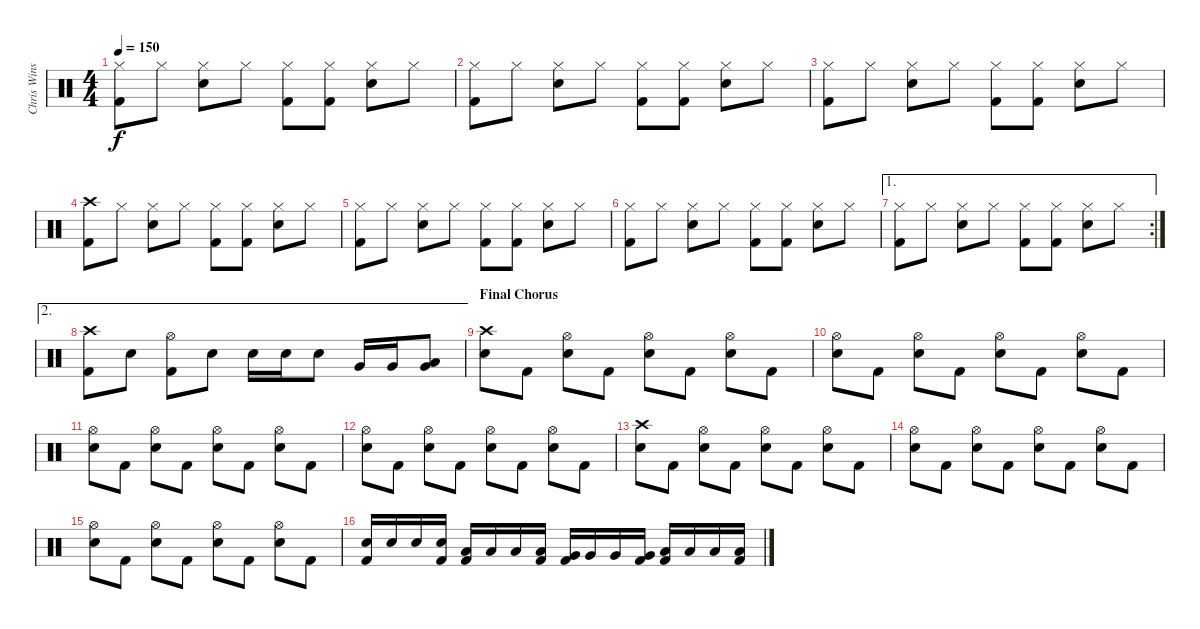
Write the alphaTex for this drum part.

\track ("Chris Winship (Drums)" "Chris Wins") {instrument percussion}
\staff {score}
\articulation defaults
\ts (4 4)
\tempo 150
\clef neutral
\ks c
("Hi-Hat (closed)" "Kick (hit) 2").8{dy f} "Hi-Hat (closed)".8 ("Hi-Hat (closed)" "Electric Snare (hit)").8 "Hi-Hat (closed)".8 ("Hi-Hat (closed)" "Kick (hit) 2").8 ("Hi-Hat (closed)" "Kick (hit) 2").8 ("Hi-Hat (closed)" "Electric Snare (hit)").8 "Hi-Hat (closed)".8 |
("Hi-Hat (closed)" "Kick (hit) 2").8 "Hi-Hat (closed)".8 ("Hi-Hat (closed)" "Electric Snare (hit)").8 "Hi-Hat (closed)".8 ("Hi-Hat (closed)" "Kick (hit) 2").8 ("Hi-Hat (closed)" "Kick (hit) 2").8 ("Hi-Hat (closed)" "Electric Snare (hit)").8 "Hi-Hat (closed)".8 |
("Hi-Hat (closed)" "Kick (hit) 2").8 "Hi-Hat (closed)".8 ("Hi-Hat (closed)" "Electric Snare (hit)").8 "Hi-Hat (closed)".8 ("Hi-Hat (closed)" "Kick (hit) 2").8 ("Hi-Hat (closed)" "Kick (hit) 2").8 ("Hi-Hat (closed)" "Electric Snare (hit)").8 "Hi-Hat (closed)".8 |
("Crash high (hit)" "Kick (hit) 2").8 "Hi-Hat (closed)".8 ("Hi-Hat (closed)" "Electric Snare (hit)").8 "Hi-Hat (closed)".8 ("Hi-Hat (closed)" "Kick (hit) 2").8 ("Hi-Hat (closed)" "Kick (hit) 2").8 ("Hi-Hat (closed)" "Electric Snare (hit)").8 "Hi-Hat (closed)".8 |
("Hi-Hat (closed)" "Kick (hit) 2").8 "Hi-Hat (closed)".8 ("Hi-Hat (closed)" "Electric Snare (hit)").8 "Hi-Hat (closed)".8 ("Hi-Hat (closed)" "Kick (hit) 2").8 ("Hi-Hat (closed)" "Kick (hit) 2").8 ("Hi-Hat (closed)" "Electric Snare (hit)").8 "Hi-Hat (closed)".8 |
("Hi-Hat (closed)" "Kick (hit) 2").8 "Hi-Hat (closed)".8 ("Hi-Hat (closed)" "Electric Snare (hit)").8 "Hi-Hat (closed)".8 ("Hi-Hat (closed)" "Kick (hit) 2").8 ("Hi-Hat (closed)" "Kick (hit) 2").8 ("Hi-Hat (closed)" "Electric Snare (hit)").8 "Hi-Hat (closed)".8 |
\ae 1
\rc 2
("Hi-Hat (closed)" "Kick (hit) 2").8 "Hi-Hat (closed)".8 ("Hi-Hat (closed)" "Electric Snare (hit)").8 "Hi-Hat (closed)".8 ("Hi-Hat (closed)" "Kick (hit) 2").8 ("Hi-Hat (closed)" "Kick (hit) 2").8 ("Hi-Hat (closed)" "Electric Snare (hit)").8 "Hi-Hat (closed)".8 |
\ae 2
("Crash high (hit)" "Kick (hit) 2").8 "Electric Snare (hit)".8 ("Hi-Hat (open)" "Kick (hit) 2").8 "Electric Snare (hit)".8 "Electric Snare (hit)".16 "Electric Snare (hit)".16 "Electric Snare (hit)".8 "Very Low Tom (hit)".16 "Very Low Tom (hit)".16 ("Low Floor Tom (hit)" "Very Low Tom (hit)").8 |
\section ("" "Final Chorus")
("Crash high (hit)" "Electric Snare (hit)").8 "Kick (hit) 2".8 ("Hi-Hat (open)" "Electric Snare (hit)").8 "Kick (hit) 2".8 ("Hi-Hat (open)" "Electric Snare (hit)").8 "Kick (hit) 2".8 ("Hi-Hat (open)" "Electric Snare (hit)").8 "Kick (hit) 2".8 |
("Hi-Hat (open)" "Electric Snare (hit)").8 "Kick (hit) 2".8 ("Hi-Hat (open)" "Electric Snare (hit)").8 "Kick (hit) 2".8 ("Hi-Hat (open)" "Electric Snare (hit)").8 "Kick (hit) 2".8 ("Hi-Hat (open)" "Electric Snare (hit)").8 "Kick (hit) 2".8 |
("Hi-Hat (open)" "Electric Snare (hit)").8 "Kick (hit) 2".8 ("Hi-Hat (open)" "Electric Snare (hit)").8 "Kick (hit) 2".8 ("Hi-Hat (open)" "Electric Snare (hit)").8 "Kick (hit) 2".8 ("Hi-Hat (open)" "Electric Snare (hit)").8 "Kick (hit) 2".8 |
("Hi-Hat (open)" "Electric Snare (hit)").8 "Kick (hit) 2".8 ("Hi-Hat (open)" "Electric Snare (hit)").8 "Kick (hit) 2".8 ("Hi-Hat (open)" "Electric Snare (hit)").8 "Kick (hit) 2".8 ("Hi-Hat (open)" "Electric Snare (hit)").8 "Kick (hit) 2".8 |
("Crash high (hit)" "Electric Snare (hit)").8 "Kick (hit) 2".8 ("Hi-Hat (open)" "Electric Snare (hit)").8 "Kick (hit) 2".8 ("Hi-Hat (open)" "Electric Snare (hit)").8 "Kick (hit) 2".8 ("Hi-Hat (open)" "Electric Snare (hit)").8 "Kick (hit) 2".8 |
("Hi-Hat (open)" "Electric Snare (hit)").8 "Kick (hit) 2".8 ("Hi-Hat (open)" "Electric Snare (hit)").8 "Kick (hit) 2".8 ("Hi-Hat (open)" "Electric Snare (hit)").8 "Kick (hit) 2".8 ("Hi-Hat (open)" "Electric Snare (hit)").8 "Kick (hit) 2".8 |
("Hi-Hat (open)" "Electric Snare (hit)").8 "Kick (hit) 2".8 ("Hi-Hat (open)" "Electric Snare (hit)").8 "Kick (hit) 2".8 ("Hi-Hat (open)" "Electric Snare (hit)").8 "Kick (hit) 2".8 ("Hi-Hat (open)" "Electric Snare (hit)").8 "Kick (hit) 2".8 |
("Electric Snare (hit)" "Kick (hit) 2").16 "Electric Snare (hit)".16 "Electric Snare (hit)".16 ("Electric Snare (hit)" "Kick (hit) 2").16 ("Low Tom (hit)" "Kick (hit) 2").16 "Low Tom (hit)".16 "Low Tom (hit)".16 ("Low Tom (hit)" "Kick (hit) 2").16 ("Very Low Tom (hit)" "Kick (hit) 2").16 "Very Low Tom (hit)".16 "Very Low Tom (hit)".16 ("Very Low Tom (hit)" "Kick (hit) 2").16 ("Low Floor Tom (hit)" "Kick (hit) 2").16 "Low Floor Tom (hit)".16 "Low Floor Tom (hit)".16 ("Low Floor Tom (hit)" "Kick (hit) 2").16
